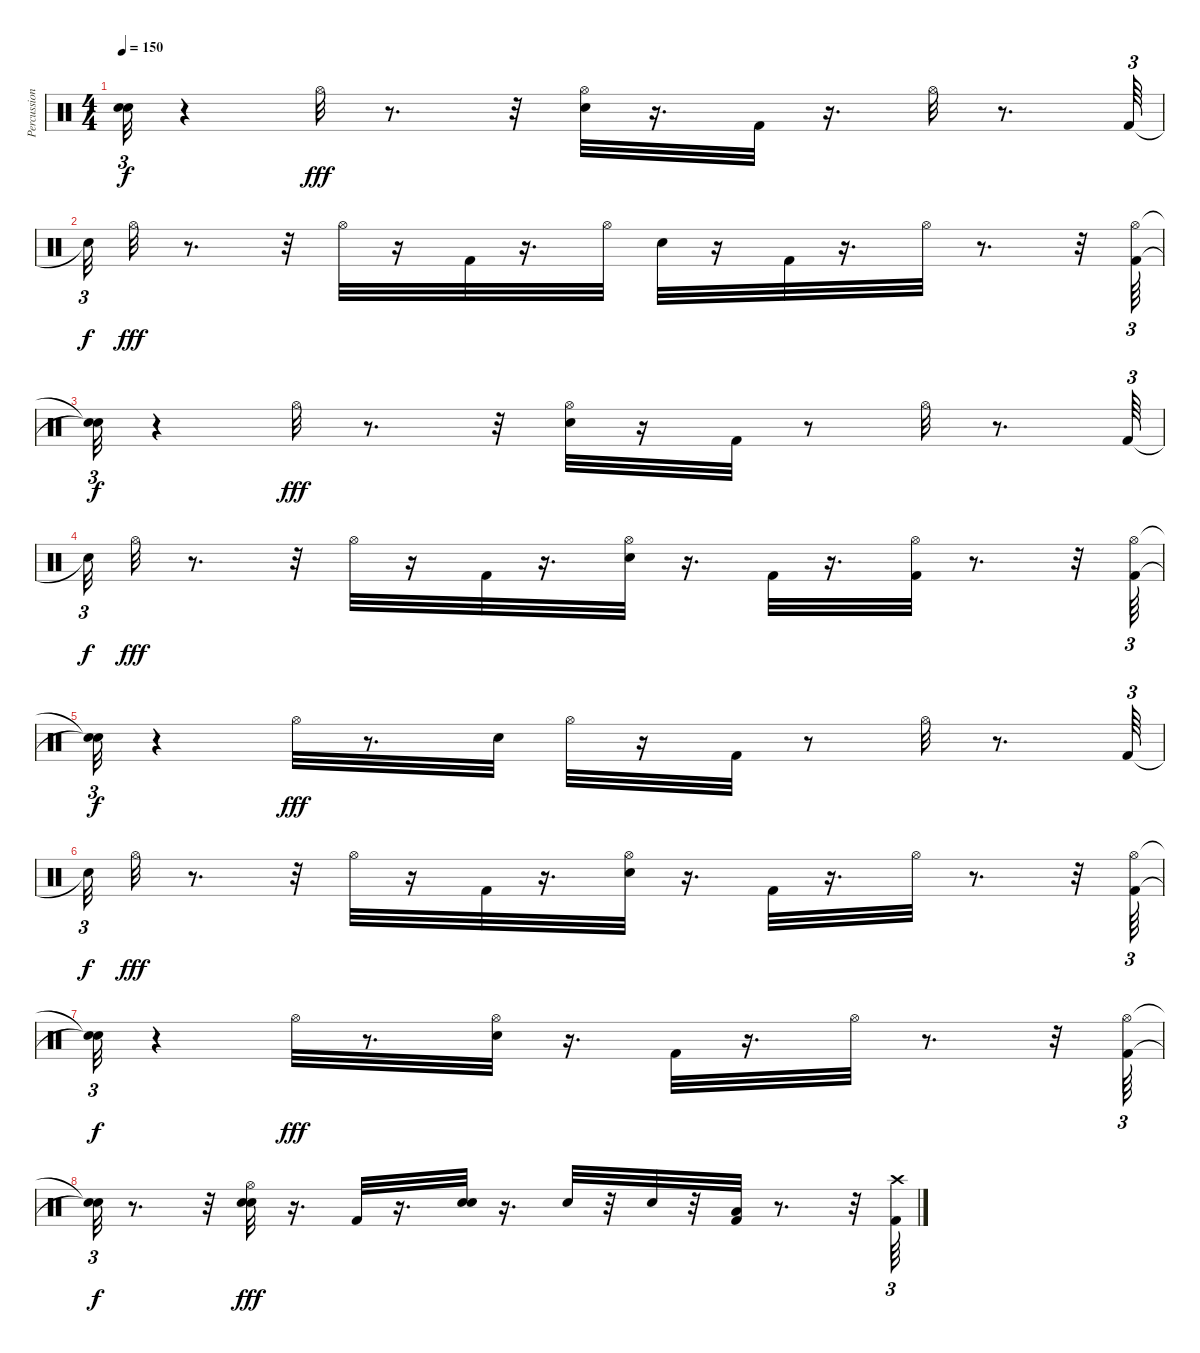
\track ("Percussion" "Percussion") {instrument percussion}
\staff {score}
\articulation defaults
\ts (4 4)
\tempo 150
\clef neutral
\ks c
("Snare (hit)"{t} "Snare (hit)"{t}).32{tu (3 2) dy f} r.4 "Hi-Hat (open)".32{dy fff} r.8{d} r.32 ("Hi-Hat (open)" "Electric Snare (hit)").32 r.16{d} "Kick (hit) 2".32 r.16{d} "Hi-Hat (open)".32 r.8{d} "Kick (hit) 2".64{tu (3 2)} |
"Snare (hit)"{t}.32{tu (3 2) dy f} "Hi-Hat (open)".32{dy fff} r.8{d} r.32 "Hi-Hat (open)".32 r.16 "Kick (hit) 2".32 r.16{d} "Hi-Hat (open)".32 "Electric Snare (hit)".32 r.16 "Kick (hit) 2".32 r.16{d} "Hi-Hat (open)".32 r.8{d} r.32 ("Hi-Hat (open)" "Kick (hit) 2").64{tu (3 2)} |
("Snare (hit)"{t} "Snare (hit)"{t}).32{tu (3 2) dy f} r.4 "Hi-Hat (open)".32{dy fff} r.8{d} r.32 ("Hi-Hat (open)" "Electric Snare (hit)").32 r.16 "Kick (hit) 2".32 r.8 "Hi-Hat (open)".32 r.8{d} "Kick (hit) 2".64{tu (3 2)} |
"Snare (hit)"{t}.32{tu (3 2) dy f} "Hi-Hat (open)".32{dy fff} r.8{d} r.32 "Hi-Hat (open)".32 r.16 "Kick (hit) 2".32 r.16{d} ("Hi-Hat (open)" "Electric Snare (hit)").32 r.16{d} "Kick (hit) 2".32 r.16{d} ("Kick (hit) 2" "Hi-Hat (open)").32 r.8{d} r.32 ("Kick (hit) 2" "Hi-Hat (open)").64{tu (3 2)} |
("Snare (hit)"{t} "Snare (hit)"{t}).32{tu (3 2) dy f} r.4 "Hi-Hat (open)".32{dy fff} r.8{d} "Electric Snare (hit)".32 "Hi-Hat (open)".32 r.16 "Kick (hit) 2".32 r.8 "Hi-Hat (open)".32 r.8{d} "Kick (hit) 2".64{tu (3 2)} |
"Snare (hit)"{t}.32{tu (3 2) dy f} "Hi-Hat (open)".32{dy fff} r.8{d} r.32 "Hi-Hat (open)".32 r.16 "Kick (hit) 2".32 r.16{d} ("Hi-Hat (open)" "Electric Snare (hit)").32 r.16{d} "Kick (hit) 2".32 r.16{d} "Hi-Hat (open)".32 r.8{d} r.32 ("Hi-Hat (open)" "Kick (hit) 2").64{tu (3 2)} |
("Snare (hit)"{t} "Snare (hit)"{t}).32{tu (3 2) dy f} r.4 "Hi-Hat (open)".32{dy fff} r.8{d} ("Hi-Hat (open)" "Electric Snare (hit)").32 r.16{d} "Kick (hit) 2".32 r.16{d} "Hi-Hat (open)".32 r.8{d} r.32 ("Kick (hit) 2" "Hi-Hat (open)").64{tu (3 2)} |
("Snare (hit)"{t} "Snare (hit)"{t}).32{tu (3 2) dy f} r.8{d} r.32 ("Electric Snare (hit)" "Hi-Hat (open)" "Snare (hit) 2").32{dy fff} r.16{d} "Kick (hit) 2".32 r.16{d} ("Electric Snare (hit)" "Snare (hit) 2").32 r.16{d} "Snare (hit) 2".32 r.32 "Snare (hit) 2".32 r.32 ("Kick (hit) 2" "Low Tom (hit)").32 r.8{d} r.32 ("Crash high (hit)" "Kick (hit) 2").64{tu (3 2)}
